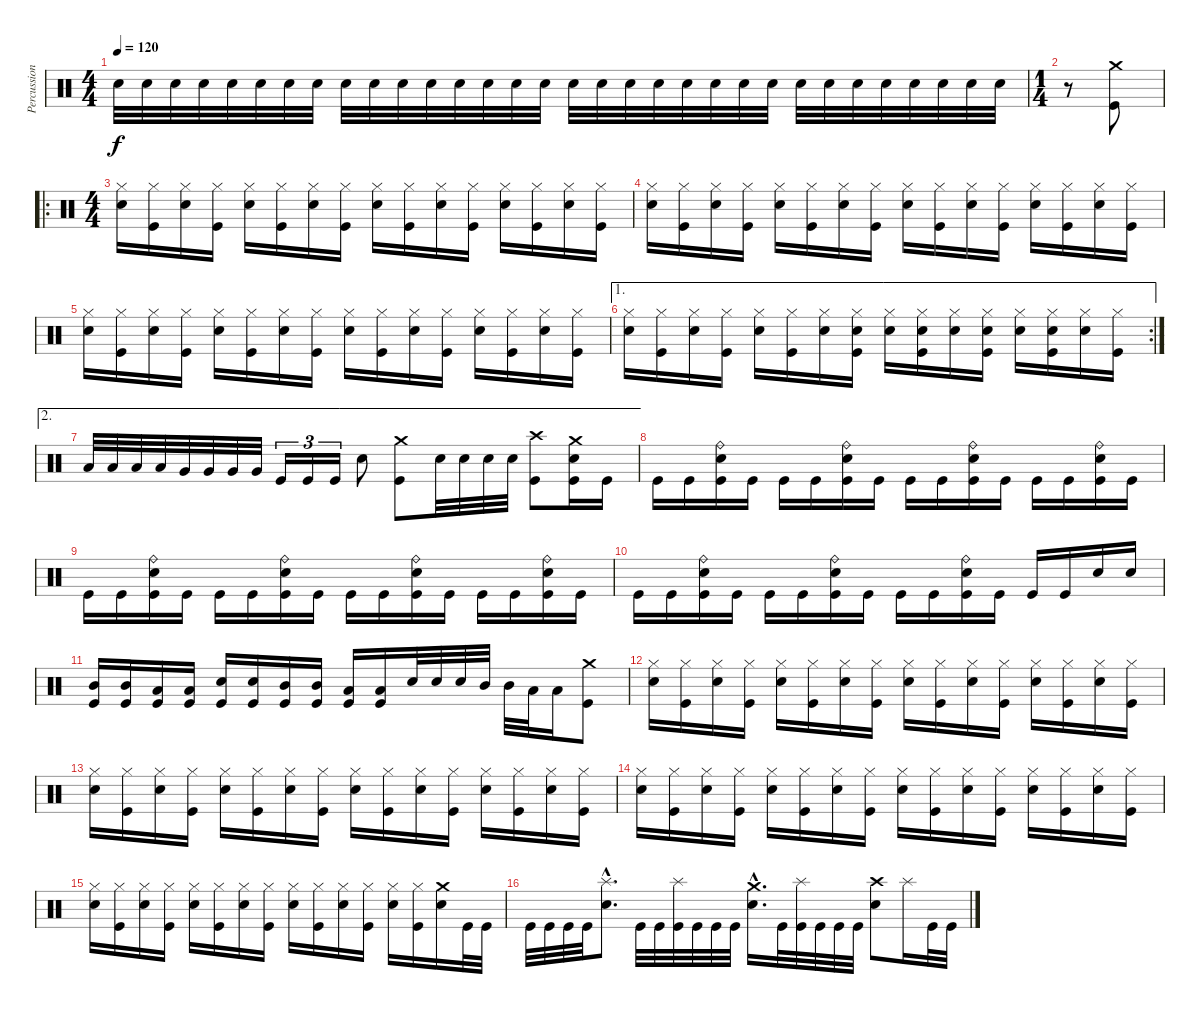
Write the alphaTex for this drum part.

\track ("Percussions" "Percussion") {instrument percussion}
\staff {score}
\articulation defaults
\ts (4 4)
\tempo 120
\clef neutral
\ks c "Electric Snare (hit)".32{dy f} "Electric Snare (hit)".32 "Electric Snare (hit)".32 "Electric Snare (hit)".32 "Electric Snare (hit)".32 "Electric Snare (hit)".32 "Electric Snare (hit)".32 "Electric Snare (hit)".32 "Electric Snare (hit)".32 "Electric Snare (hit)".32 "Electric Snare (hit)".32 "Electric Snare (hit)".32 "Electric Snare (hit)".32 "Electric Snare (hit)".32 "Electric Snare (hit)".32 "Electric Snare (hit)".32 "Electric Snare (hit)".32 "Electric Snare (hit)".32 "Electric Snare (hit)".32 "Electric Snare (hit)".32 "Electric Snare (hit)".32 "Electric Snare (hit)".32 "Electric Snare (hit)".32 "Electric Snare (hit)".32 "Electric Snare (hit)".32 "Electric Snare (hit)".32 "Electric Snare (hit)".32 "Electric Snare (hit)".32 "Electric Snare (hit)".32 "Electric Snare (hit)".32 "Electric Snare (hit)".32 "Electric Snare (hit)".32
|
\ts (1 4)
r.8 ("Kick (hit)" "Crash medium (hit)").8 |
\ro
\ts (4 4)
("Electric Snare (hit)" "Hi-Hat (closed)").16 ("Kick (hit)" "Hi-Hat (closed)").16 ("Electric Snare (hit)" "Hi-Hat (closed)").16 ("Kick (hit)" "Hi-Hat (closed)").16 ("Electric Snare (hit)" "Hi-Hat (closed)").16 ("Kick (hit)" "Hi-Hat (closed)").16 ("Electric Snare (hit)" "Hi-Hat (closed)").16 ("Kick (hit)" "Hi-Hat (closed)").16 ("Electric Snare (hit)" "Hi-Hat (closed)").16 ("Kick (hit)" "Hi-Hat (closed)").16 ("Electric Snare (hit)" "Hi-Hat (closed)").16 ("Kick (hit)" "Hi-Hat (closed)").16 ("Electric Snare (hit)" "Hi-Hat (closed)").16 ("Kick (hit)" "Hi-Hat (closed)").16 ("Electric Snare (hit)" "Hi-Hat (closed)").16 ("Kick (hit)" "Hi-Hat (closed)").16 |
("Electric Snare (hit)" "Hi-Hat (closed)").16 ("Kick (hit)" "Hi-Hat (closed)").16 ("Electric Snare (hit)" "Hi-Hat (closed)").16 ("Kick (hit)" "Hi-Hat (closed)").16 ("Electric Snare (hit)" "Hi-Hat (closed)").16 ("Kick (hit)" "Hi-Hat (closed)").16 ("Electric Snare (hit)" "Hi-Hat (closed)").16 ("Kick (hit)" "Hi-Hat (closed)").16 ("Electric Snare (hit)" "Hi-Hat (closed)").16 ("Kick (hit)" "Hi-Hat (closed)").16 ("Electric Snare (hit)" "Hi-Hat (closed)").16 ("Kick (hit)" "Hi-Hat (closed)").16 ("Electric Snare (hit)" "Hi-Hat (closed)").16 ("Kick (hit)" "Hi-Hat (closed)").16 ("Electric Snare (hit)" "Hi-Hat (closed)").16 ("Kick (hit)" "Hi-Hat (closed)").16 |
("Electric Snare (hit)" "Hi-Hat (closed)").16 ("Kick (hit)" "Hi-Hat (closed)").16 ("Electric Snare (hit)" "Hi-Hat (closed)").16 ("Kick (hit)" "Hi-Hat (closed)").16 ("Electric Snare (hit)" "Hi-Hat (closed)").16 ("Kick (hit)" "Hi-Hat (closed)").16 ("Electric Snare (hit)" "Hi-Hat (closed)").16 ("Kick (hit)" "Hi-Hat (closed)").16 ("Electric Snare (hit)" "Hi-Hat (closed)").16 ("Kick (hit)" "Hi-Hat (closed)").16 ("Electric Snare (hit)" "Hi-Hat (closed)").16 ("Kick (hit)" "Hi-Hat (closed)").16 ("Electric Snare (hit)" "Hi-Hat (closed)").16 ("Kick (hit)" "Hi-Hat (closed)").16 ("Electric Snare (hit)" "Hi-Hat (closed)").16 ("Kick (hit)" "Hi-Hat (closed)").16 |
\ae 1
\rc 2
("Electric Snare (hit)" "Hi-Hat (closed)").16 ("Kick (hit)" "Hi-Hat (closed)").16 ("Electric Snare (hit)" "Hi-Hat (closed)").16 ("Kick (hit)" "Hi-Hat (closed)").16 ("Electric Snare (hit)" "Hi-Hat (closed)").16 ("Kick (hit)" "Hi-Hat (closed)").16 ("Electric Snare (hit)" "Hi-Hat (closed)").16 ("Kick (hit)" "Electric Snare (hit)" "Hi-Hat (closed)").16 ("Electric Snare (hit)" "Hi-Hat (closed)").16 ("Kick (hit)" "Electric Snare (hit)" "Hi-Hat (closed)").16 ("Electric Snare (hit)" "Hi-Hat (closed)").16 ("Kick (hit)" "Electric Snare (hit)" "Hi-Hat (closed)").16 ("Electric Snare (hit)" "Hi-Hat (closed)").16 ("Kick (hit)" "Electric Snare (hit)" "Hi-Hat (closed)").16 ("Electric Snare (hit)" "Hi-Hat (closed)").16 ("Kick (hit)" "Hi-Hat (closed)").16 |
\ae 2 "Low Tom (hit)".32 "Low Tom (hit)".32 "Low Tom (hit)".32 "Low Tom (hit)".32 "Very Low Tom (hit)".32 "Very Low Tom (hit)".32 "Very Low Tom (hit)".32 "Very Low Tom (hit)".32 "Kick (hit)".16{tu (3 2)} "Kick (hit)".16{tu (3 2)} "Kick (hit)".16{tu (3 2)} "Electric Snare (hit)".8
("Kick (hit)" "Crash medium (hit)").8 "Electric Snare (hit)".32 "Electric Snare (hit)".32 "Electric Snare (hit)".32 "Electric Snare (hit)".32 ("Kick (hit)" "Crash high (hit)").8 ("Kick (hit)" "Electric Snare (hit)" "Crash medium (hit)").16 "Kick (hit)".16 |
"Kick (hit)".16 "Kick (hit)".16 ("Kick (hit)" "Electric Snare (hit)" "Ride (bell)").16 "Kick (hit)".16 "Kick (hit)".16 "Kick (hit)".16 ("Kick (hit)" "Electric Snare (hit)" "Ride (bell)").16 "Kick (hit)".16 "Kick (hit)".16 "Kick (hit)".16 ("Kick (hit)" "Electric Snare (hit)" "Ride (bell)").16 "Kick (hit)".16 "Kick (hit)".16 "Kick (hit)".16 ("Kick (hit)" "Electric Snare (hit)" "Ride (bell)").16 "Kick (hit)".16 |
"Kick (hit)".16 "Kick (hit)".16 ("Kick (hit)" "Electric Snare (hit)" "Ride (bell)").16 "Kick (hit)".16 "Kick (hit)".16 "Kick (hit)".16 ("Kick (hit)" "Electric Snare (hit)" "Ride (bell)").16 "Kick (hit)".16 "Kick (hit)".16 "Kick (hit)".16 ("Kick (hit)" "Electric Snare (hit)" "Ride (bell)").16 "Kick (hit)".16 "Kick (hit)".16 "Kick (hit)".16 ("Kick (hit)" "Electric Snare (hit)" "Ride (bell)").16 "Kick (hit)".16 |
"Kick (hit)".16 "Kick (hit)".16 ("Kick (hit)" "Electric Snare (hit)" "Ride (bell)").16 "Kick (hit)".16 "Kick (hit)".16 "Kick (hit)".16 ("Kick (hit)" "Electric Snare (hit)" "Ride (bell)").16 "Kick (hit)".16 "Kick (hit)".16 "Kick (hit)".16 ("Kick (hit)" "Electric Snare (hit)" "Ride (bell)").16 "Kick (hit)".16 "Kick (hit)".16 "Kick (hit)".16 "Electric Snare (hit)".16 "Electric Snare (hit)".16 |
("Kick (hit)" "Mid Tom (hit)").16 ("Kick (hit)" "Mid Tom (hit)").16 ("Kick (hit)" "Low Tom (hit)").16 ("Kick (hit)" "Low Tom (hit)").16 ("Kick (hit)" "Electric Snare (hit)").16 ("Kick (hit)" "Electric Snare (hit)").16 ("Kick (hit)" "Mid Tom (hit)").16 ("Kick (hit)" "Mid Tom (hit)").16 ("Kick (hit)" "Low Tom (hit)").16 ("Kick (hit)" "Low Tom (hit)").16 "Electric Snare (hit)".32 "Electric Snare (hit)".32 "Electric Snare (hit)".32 "Mid Tom (hit)".32 "Mid Tom (hit)".32 "Low Tom (hit)".32 "Low Tom (hit)".16 ("Kick (hit)" "Crash medium (hit)").8 |
("Electric Snare (hit)" "Hi-Hat (closed)").16 ("Kick (hit)" "Hi-Hat (closed)").16 ("Electric Snare (hit)" "Hi-Hat (closed)").16 ("Kick (hit)" "Hi-Hat (closed)").16 ("Electric Snare (hit)" "Hi-Hat (closed)").16 ("Kick (hit)" "Hi-Hat (closed)").16 ("Electric Snare (hit)" "Hi-Hat (closed)").16 ("Kick (hit)" "Hi-Hat (closed)").16 ("Electric Snare (hit)" "Hi-Hat (closed)").16 ("Kick (hit)" "Hi-Hat (closed)").16 ("Electric Snare (hit)" "Hi-Hat (closed)").16 ("Kick (hit)" "Hi-Hat (closed)").16 ("Electric Snare (hit)" "Hi-Hat (closed)").16 ("Kick (hit)" "Hi-Hat (closed)").16 ("Electric Snare (hit)" "Hi-Hat (closed)").16 ("Kick (hit)" "Hi-Hat (closed)").16 |
("Electric Snare (hit)" "Hi-Hat (closed)").16 ("Kick (hit)" "Hi-Hat (closed)").16 ("Electric Snare (hit)" "Hi-Hat (closed)").16 ("Kick (hit)" "Hi-Hat (closed)").16 ("Electric Snare (hit)" "Hi-Hat (closed)").16 ("Kick (hit)" "Hi-Hat (closed)").16 ("Electric Snare (hit)" "Hi-Hat (closed)").16 ("Kick (hit)" "Hi-Hat (closed)").16 ("Electric Snare (hit)" "Hi-Hat (closed)").16 ("Kick (hit)" "Hi-Hat (closed)").16 ("Electric Snare (hit)" "Hi-Hat (closed)").16 ("Kick (hit)" "Hi-Hat (closed)").16 ("Electric Snare (hit)" "Hi-Hat (closed)").16 ("Kick (hit)" "Hi-Hat (closed)").16 ("Electric Snare (hit)" "Hi-Hat (closed)").16 ("Kick (hit)" "Hi-Hat (closed)").16 |
("Electric Snare (hit)" "Hi-Hat (closed)").16 ("Kick (hit)" "Hi-Hat (closed)").16 ("Electric Snare (hit)" "Hi-Hat (closed)").16 ("Kick (hit)" "Hi-Hat (closed)").16 ("Electric Snare (hit)" "Hi-Hat (closed)").16 ("Kick (hit)" "Hi-Hat (closed)").16 ("Electric Snare (hit)" "Hi-Hat (closed)").16 ("Kick (hit)" "Hi-Hat (closed)").16 ("Electric Snare (hit)" "Hi-Hat (closed)").16 ("Kick (hit)" "Hi-Hat (closed)").16 ("Electric Snare (hit)" "Hi-Hat (closed)").16 ("Kick (hit)" "Hi-Hat (closed)").16 ("Electric Snare (hit)" "Hi-Hat (closed)").16 ("Kick (hit)" "Hi-Hat (closed)").16 ("Electric Snare (hit)" "Hi-Hat (closed)").16 ("Kick (hit)" "Hi-Hat (closed)").16 |
("Electric Snare (hit)" "Hi-Hat (closed)").16 ("Kick (hit)" "Hi-Hat (closed)").16 ("Electric Snare (hit)" "Hi-Hat (closed)").16 ("Kick (hit)" "Hi-Hat (closed)").16 ("Electric Snare (hit)" "Hi-Hat (closed)").16 ("Kick (hit)" "Hi-Hat (closed)").16 ("Electric Snare (hit)" "Hi-Hat (closed)").16 ("Kick (hit)" "Hi-Hat (closed)").16 ("Electric Snare (hit)" "Hi-Hat (closed)").16 ("Kick (hit)" "Hi-Hat (closed)").16 ("Electric Snare (hit)" "Hi-Hat (closed)").16 ("Kick (hit)" "Hi-Hat (closed)").16 ("Electric Snare (hit)" "Hi-Hat (closed)").16 ("Kick (hit)" "Hi-Hat (closed)").16 ("Electric Snare (hit)" "Crash medium (hit)").16 "Kick (hit)".32 "Kick (hit)".32 |
"Kick (hit)".32 "Kick (hit)".32 "Kick (hit)".32 "Kick (hit)".32 ("Electric Snare (hit)"{hac} "Splash (hit)"{hac}).8{d} "Kick (hit)".32 "Kick (hit)".32 ("Kick (hit)" "Splash (hit)").32 "Kick (hit)".32 "Kick (hit)".32 "Kick (hit)".32 ("Electric Snare (hit)"{hac} "Crash medium (hit)"{hac}).16{d} "Kick (hit)".32 ("Kick (hit)" "Splash (hit)").32 "Kick (hit)".32 "Kick (hit)".32 "Kick (hit)".32 ("Electric Snare (hit)" "Crash high (hit)").8 "Splash (hit)".16 "Kick (hit)".32 "Kick (hit)".32
